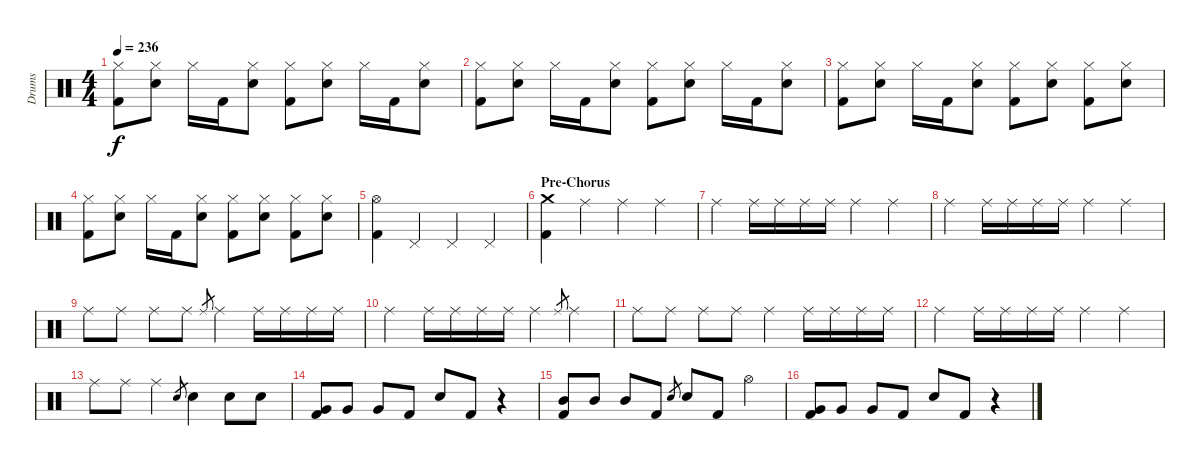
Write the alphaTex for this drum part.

\track ("Drums" "Drums") {instrument percussion}
\staff {score}
\articulation defaults
\ts (4 4)
\tempo 236
\clef neutral
\ks c
("Hi-Hat (closed)" "Kick (hit) 2").8{dy f} ("Hi-Hat (closed)" "Electric Snare (hit)").8 "Hi-Hat (closed)".16 "Kick (hit) 2".16 ("Hi-Hat (closed)" "Electric Snare (hit)").8 ("Hi-Hat (closed)" "Kick (hit) 2").8 ("Hi-Hat (closed)" "Electric Snare (hit)").8 "Hi-Hat (closed)".16 "Kick (hit) 2".16 ("Hi-Hat (closed)" "Electric Snare (hit)").8 |
("Hi-Hat (closed)" "Kick (hit) 2").8 ("Hi-Hat (closed)" "Electric Snare (hit)").8 "Hi-Hat (closed)".16 "Kick (hit) 2".16 ("Hi-Hat (closed)" "Electric Snare (hit)").8 ("Hi-Hat (closed)" "Kick (hit) 2").8 ("Hi-Hat (closed)" "Electric Snare (hit)").8 "Hi-Hat (closed)".16 "Kick (hit) 2".16 ("Hi-Hat (closed)" "Electric Snare (hit)").8 |
("Hi-Hat (closed)" "Kick (hit) 2").8 ("Hi-Hat (closed)" "Electric Snare (hit)").8 "Hi-Hat (closed)".16 "Kick (hit) 2".16 ("Hi-Hat (closed)" "Electric Snare (hit)").8 ("Hi-Hat (closed)" "Kick (hit) 2").8 ("Hi-Hat (closed)" "Electric Snare (hit)").8 ("Hi-Hat (closed)" "Kick (hit) 2").8 ("Hi-Hat (closed)" "Electric Snare (hit)").8 |
("Hi-Hat (closed)" "Kick (hit) 2").8 ("Hi-Hat (closed)" "Electric Snare (hit)").8 "Hi-Hat (closed)".16 "Kick (hit) 2".16 ("Hi-Hat (closed)" "Electric Snare (hit)").8 ("Hi-Hat (closed)" "Kick (hit) 2").8 ("Hi-Hat (closed)" "Electric Snare (hit)").8 ("Hi-Hat (closed)" "Kick (hit) 2").8 ("Hi-Hat (closed)" "Electric Snare (hit)").8 |
("Hi-Hat (open)" "Kick (hit) 2").4 "Pedal Hi-Hat (hit)".4 "Pedal Hi-Hat (hit)".4 "Pedal Hi-Hat (hit)".4 |
\section ("" "Pre-Chorus")
("Crash medium (hit)" "Kick (hit) 2").4 "Ride (middle)".4 "Ride (middle)".4 "Ride (middle)".4 |
"Ride (middle)".4 "Ride (middle)".16 "Ride (middle)".16 "Ride (middle)".16 "Ride (middle)".16 "Ride (middle)".4 "Ride (middle)".4 |
"Ride (middle)".4 "Ride (middle)".16 "Ride (middle)".16 "Ride (middle)".16 "Ride (middle)".16 "Ride (middle)".4 "Ride (middle)".4 |
"Ride (middle)".8 "Ride (middle)".8 "Ride (middle)".8 "Ride (middle)".8 "Ride (middle)".8{gr} "Ride (middle)".4 "Ride (middle)".16 "Ride (middle)".16 "Ride (middle)".16 "Ride (middle)".16 |
"Ride (middle)".4 "Ride (middle)".16 "Ride (middle)".16 "Ride (middle)".16 "Ride (middle)".16 "Ride (middle)".4 "Ride (middle)".8{gr} "Ride (middle)".4 |
"Ride (middle)".8 "Ride (middle)".8 "Ride (middle)".8 "Ride (middle)".8 "Ride (middle)".4 "Ride (middle)".16 "Ride (middle)".16 "Ride (middle)".16 "Ride (middle)".16 |
"Ride (middle)".4 "Ride (middle)".16 "Ride (middle)".16 "Ride (middle)".16 "Ride (middle)".16 "Ride (middle)".4 "Ride (middle)".4 |
"Ride (middle)".8 "Ride (middle)".8 "Ride (middle)".4 "Electric Snare (hit)".8{gr} "Electric Snare (hit)".4 "Electric Snare (hit)".8 "Electric Snare (hit)".8 |
("Very Low Tom (hit)" "Kick (hit) 2").8 "Very Low Tom (hit)".8 "Very Low Tom (hit)".8 "Kick (hit) 2".8 "Electric Snare (hit)".8 "Kick (hit) 2".8 r.4 |
("Mid Tom (hit)" "Kick (hit) 2").8 "Mid Tom (hit)".8 "Mid Tom (hit)".8 "Kick (hit) 2".8 "Electric Snare (hit)".8{gr} "Electric Snare (hit)".8 "Kick (hit) 2".8 "Hi-Hat (open)".4 |
("Very Low Tom (hit)" "Kick (hit) 2").8 "Very Low Tom (hit)".8 "Very Low Tom (hit)".8 "Kick (hit) 2".8 "Electric Snare (hit)".8 "Kick (hit) 2".8 r.4
